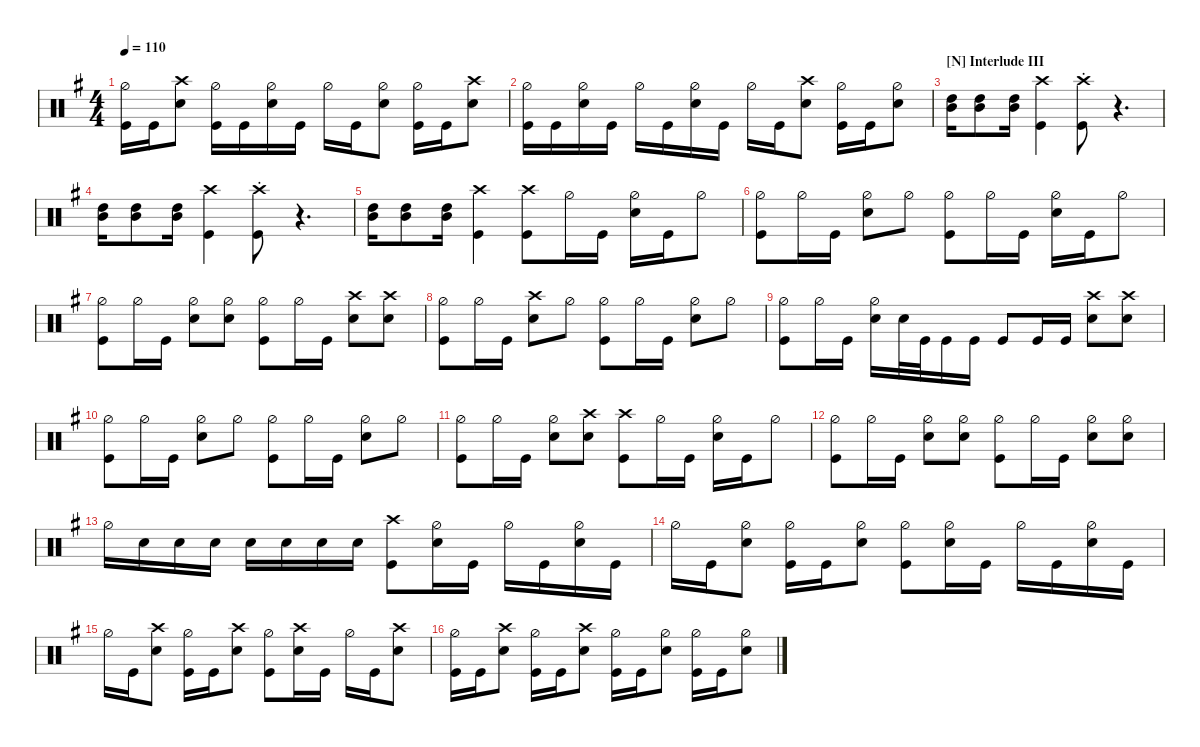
\defaultSystemsLayout 4
\hideDynamics
\bracketExtendMode nobrackets
\otherSystemsTrackNameOrientation horizontal
\track ("Drums" " ") {instrument percussion}
\staff
\articulation defaults
\ts (4 4)
\tempo 110
\clef neutral
\ks eminor
("Kick (hit)"{acc forcenatural} "Hi-Hat (half)"{acc forcenatural}).16{dy f} "Kick (hit)"{acc forcenatural}.16 ("Snare (hit) 2"{acc forcenatural} "Crash high (hit)"{acc forcenatural}).8 ("Hi-Hat (half)"{acc forcenatural} "Kick (hit)"{acc forcenatural}).16 "Kick (hit)"{acc forcenatural}.16 ("Hi-Hat (half)"{acc forcenatural} "Snare (hit) 2"{acc forcenatural}).16 "Kick (hit)"{acc forcenatural}.16 "Hi-Hat (half)"{acc forcenatural}.16 "Kick (hit)"{acc forcenatural}.16 ("Hi-Hat (half)"{acc forcenatural} "Snare (hit) 2"{acc forcenatural}).8 ("Kick (hit)"{acc forcenatural} "Hi-Hat (half)"{acc forcenatural}).16 "Kick (hit)"{acc forcenatural}.16 ("Snare (hit) 2"{acc forcenatural} "Crash high (hit)"{acc forcenatural}).8 |
("Hi-Hat (half)"{acc forcenatural} "Kick (hit)"{acc forcenatural}).16 "Kick (hit)"{acc forcenatural}.16 ("Hi-Hat (half)"{acc forcenatural} "Snare (hit) 2"{acc forcenatural}).16 "Kick (hit)"{acc forcenatural}.16 "Hi-Hat (half)"{acc forcenatural}.16 "Kick (hit)"{acc forcenatural}.16 ("Hi-Hat (half)"{acc forcenatural} "Snare (hit) 2"{acc forcenatural}).16 "Kick (hit)"{acc forcenatural}.16 "Hi-Hat (half)"{acc forcenatural}.16 "Kick (hit)"{acc forcenatural}.16 ("Snare (hit) 2"{acc forcenatural} "Crash high (hit)"{acc forcenatural}).8 ("Kick (hit)"{acc forcenatural} "Hi-Hat (half)"{acc forcenatural}).16 "Kick (hit)"{acc forcenatural}.16 ("Hi-Hat (half)"{acc forcenatural} "Snare (hit) 2"{acc forcenatural}).8 |
\section ("N" "Interlude III")
("High Tom (hit)"{acc forcenatural} "Mid Tom (hit)"{acc forcenatural}).16{dy ff} ("High Tom (hit)"{acc forcenatural} "Mid Tom (hit)"{acc forcenatural}).8 ("High Tom (hit)"{acc forcenatural} "Mid Tom (hit)"{acc forcenatural}).16 ("Kick (hit)"{acc forcenatural} "Crash high (hit)"{acc forcenatural}).4{dy f} ("Kick (hit)"{acc forcenatural} "Crash high (hit)"{st acc forcenatural}).8 r.4{d} |
("High Tom (hit)"{acc forcenatural} "Mid Tom (hit)"{acc forcenatural}).16{dy ff} ("High Tom (hit)"{acc forcenatural} "Mid Tom (hit)"{acc forcenatural}).8 ("High Tom (hit)"{acc forcenatural} "Mid Tom (hit)"{acc forcenatural}).16 ("Kick (hit)"{acc forcenatural} "Crash high (hit)"{acc forcenatural}).4{dy f} ("Kick (hit)"{acc forcenatural} "Crash high (hit)"{st acc forcenatural}).8 r.4{d} |
("High Tom (hit)"{acc forcenatural} "Mid Tom (hit)"{acc forcenatural}).16{dy ff} ("High Tom (hit)"{acc forcenatural} "Mid Tom (hit)"{acc forcenatural}).8 ("High Tom (hit)"{acc forcenatural} "Mid Tom (hit)"{acc forcenatural}).16 ("Kick (hit)"{acc forcenatural} "Crash high (hit)"{acc forcenatural}).4{dy f} ("Kick (hit)"{acc forcenatural} "Crash high (hit)"{acc forcenatural}).8 "Hi-Hat (half)"{acc forcenatural}.16 "Kick (hit)"{acc forcenatural}.16 ("Hi-Hat (half)"{acc forcenatural} "Snare (hit) 2"{acc forcenatural}).16 "Kick (hit)"{acc forcenatural}.16 "Hi-Hat (half)"{acc forcenatural}.8 |
("Hi-Hat (half)"{acc forcenatural} "Kick (hit)"{acc forcenatural}).8 "Hi-Hat (half)"{acc forcenatural}.16 "Kick (hit)"{acc forcenatural}.16 ("Hi-Hat (half)"{acc forcenatural} "Snare (hit) 2"{acc forcenatural}).8 "Hi-Hat (half)"{acc forcenatural}.8 ("Hi-Hat (half)"{acc forcenatural} "Kick (hit)"{acc forcenatural}).8 "Hi-Hat (half)"{acc forcenatural}.16 "Kick (hit)"{acc forcenatural}.16 ("Hi-Hat (half)"{acc forcenatural} "Snare (hit) 2"{acc forcenatural}).16 "Kick (hit)"{acc forcenatural}.16 "Hi-Hat (half)"{acc forcenatural}.8 |
("Hi-Hat (half)"{acc forcenatural} "Kick (hit)"{acc forcenatural}).8 "Hi-Hat (half)"{acc forcenatural}.16 "Kick (hit)"{acc forcenatural}.16 ("Hi-Hat (half)"{acc forcenatural} "Snare (hit) 2"{acc forcenatural}).8 ("Hi-Hat (half)"{acc forcenatural} "Snare (hit) 2"{acc forcenatural}).8 ("Hi-Hat (half)"{acc forcenatural} "Kick (hit)"{acc forcenatural}).8 "Hi-Hat (half)"{acc forcenatural}.16 "Kick (hit)"{acc forcenatural}.16 ("Snare (hit) 2"{acc forcenatural} "Crash high (hit)"{acc forcenatural}).8 ("Snare (hit) 2"{acc forcenatural} "Crash high (hit)"{acc forcenatural}).8 |
("Hi-Hat (half)"{acc forcenatural} "Kick (hit)"{acc forcenatural}).8 "Hi-Hat (half)"{acc forcenatural}.16 "Kick (hit)"{acc forcenatural}.16 ("Snare (hit) 2"{acc forcenatural} "Crash high (hit)"{acc forcenatural}).8 "Hi-Hat (half)"{acc forcenatural}.8 ("Hi-Hat (half)"{acc forcenatural} "Kick (hit)"{acc forcenatural}).8 "Hi-Hat (half)"{acc forcenatural}.16 "Kick (hit)"{acc forcenatural}.16 ("Snare (hit) 2"{acc forcenatural} "Hi-Hat (half)"{acc forcenatural}).8 "Hi-Hat (half)"{acc forcenatural}.8 |
("Hi-Hat (half)"{acc forcenatural} "Kick (hit)"{acc forcenatural}).8 "Hi-Hat (half)"{acc forcenatural}.16 "Kick (hit)"{acc forcenatural}.16 ("Snare (hit) 2"{acc forcenatural} "Hi-Hat (half)"{acc forcenatural}).16 "Snare (hit) 2"{acc forcenatural}.32 "Kick (hit)"{acc forcenatural}.32 "Kick (hit)"{acc forcenatural}.16 "Kick (hit)"{acc forcenatural}.16 "Kick (hit)"{acc forcenatural}.8 "Kick (hit)"{acc forcenatural}.16 "Kick (hit)"{acc forcenatural}.16 ("Snare (hit) 2"{acc forcenatural} "Crash high (hit)"{acc forcenatural}).8 ("Snare (hit) 2"{acc forcenatural} "Crash high (hit)"{acc forcenatural}).8 |
("Hi-Hat (half)"{acc forcenatural} "Kick (hit)"{acc forcenatural}).8 "Hi-Hat (half)"{acc forcenatural}.16 "Kick (hit)"{acc forcenatural}.16 ("Snare (hit) 2"{acc forcenatural} "Hi-Hat (half)"{acc forcenatural}).8 "Hi-Hat (half)"{acc forcenatural}.8 ("Hi-Hat (half)"{acc forcenatural} "Kick (hit)"{acc forcenatural}).8 "Hi-Hat (half)"{acc forcenatural}.16 "Kick (hit)"{acc forcenatural}.16 ("Snare (hit) 2"{acc forcenatural} "Hi-Hat (half)"{acc forcenatural}).8 "Hi-Hat (half)"{acc forcenatural}.8 |
("Hi-Hat (half)"{acc forcenatural} "Kick (hit)"{acc forcenatural}).8 "Hi-Hat (half)"{acc forcenatural}.16 "Kick (hit)"{acc forcenatural}.16 ("Snare (hit) 2"{acc forcenatural} "Hi-Hat (half)"{acc forcenatural}).8 ("Snare (hit) 2"{acc forcenatural} "Crash high (hit)"{acc forcenatural}).8 ("Kick (hit)"{acc forcenatural} "Crash high (hit)"{acc forcenatural}).8 "Hi-Hat (half)"{acc forcenatural}.16 "Kick (hit)"{acc forcenatural}.16 ("Snare (hit) 2"{acc forcenatural} "Hi-Hat (half)"{acc forcenatural}).16 "Kick (hit)"{acc forcenatural}.16 "Hi-Hat (half)"{acc forcenatural}.8 |
("Hi-Hat (half)"{acc forcenatural} "Kick (hit)"{acc forcenatural}).8 "Hi-Hat (half)"{acc forcenatural}.16 "Kick (hit)"{acc forcenatural}.16 ("Snare (hit) 2"{acc forcenatural} "Hi-Hat (half)"{acc forcenatural}).8 ("Snare (hit) 2"{acc forcenatural} "Hi-Hat (half)"{acc forcenatural}).8 ("Hi-Hat (half)"{acc forcenatural} "Kick (hit)"{acc forcenatural}).8 "Hi-Hat (half)"{acc forcenatural}.16 "Kick (hit)"{acc forcenatural}.16 ("Snare (hit) 2"{acc forcenatural} "Hi-Hat (half)"{acc forcenatural}).8 ("Snare (hit) 2"{acc forcenatural} "Hi-Hat (half)"{acc forcenatural}).8 |
"Hi-Hat (half)"{acc forcenatural}.16 "Snare (hit) 2"{acc forcenatural}.16 "Snare (hit) 2"{acc forcenatural}.16 "Snare (hit) 2"{acc forcenatural}.16 "Snare (hit) 2"{acc forcenatural}.16 "Snare (hit) 2"{acc forcenatural}.16 "Snare (hit) 2"{acc forcenatural}.16 "Snare (hit) 2"{acc forcenatural}.16 ("Kick (hit)"{acc forcenatural} "Crash high (hit)"{acc forcenatural}).8 ("Hi-Hat (half)"{acc forcenatural} "Snare (hit) 2"{acc forcenatural}).16 "Kick (hit)"{acc forcenatural}.16 "Hi-Hat (half)"{acc forcenatural}.16 "Kick (hit)"{acc forcenatural}.16 ("Hi-Hat (half)"{acc forcenatural} "Snare (hit) 2"{acc forcenatural}).16 "Kick (hit)"{acc forcenatural}.16 |
"Hi-Hat (half)"{acc forcenatural}.16 "Kick (hit)"{acc forcenatural}.16 ("Hi-Hat (half)"{acc forcenatural} "Snare (hit) 2"{acc forcenatural}).8 ("Hi-Hat (half)"{acc forcenatural} "Kick (hit)"{acc forcenatural}).16 "Kick (hit)"{acc forcenatural}.16 ("Hi-Hat (half)"{acc forcenatural} "Snare (hit) 2"{acc forcenatural}).8 ("Hi-Hat (half)"{acc forcenatural} "Kick (hit)"{acc forcenatural}).8 ("Hi-Hat (half)"{acc forcenatural} "Snare (hit) 2"{acc forcenatural}).16 "Kick (hit)"{acc forcenatural}.16 "Hi-Hat (half)"{acc forcenatural}.16 "Kick (hit)"{acc forcenatural}.16 ("Hi-Hat (half)"{acc forcenatural} "Snare (hit) 2"{acc forcenatural}).16 "Kick (hit)"{acc forcenatural}.16 |
"Hi-Hat (half)"{acc forcenatural}.16 "Kick (hit)"{acc forcenatural}.16 ("Snare (hit) 2"{acc forcenatural} "Crash high (hit)"{acc forcenatural}).8 ("Hi-Hat (half)"{acc forcenatural} "Kick (hit)"{acc forcenatural}).16 "Kick (hit)"{acc forcenatural}.16 ("Snare (hit) 2"{acc forcenatural} "Crash high (hit)"{acc forcenatural}).8 ("Hi-Hat (half)"{acc forcenatural} "Kick (hit)"{acc forcenatural}).8 ("Snare (hit) 2"{acc forcenatural} "Crash high (hit)"{acc forcenatural}).16 "Kick (hit)"{acc forcenatural}.16 "Hi-Hat (half)"{acc forcenatural}.16 "Kick (hit)"{acc forcenatural}.16 ("Snare (hit) 2"{acc forcenatural} "Crash high (hit)"{acc forcenatural}).8 |
("Hi-Hat (half)"{acc forcenatural} "Kick (hit)"{acc forcenatural}).16 "Kick (hit)"{acc forcenatural}.16 ("Snare (hit) 2"{acc forcenatural} "Crash high (hit)"{acc forcenatural}).8 ("Hi-Hat (half)"{acc forcenatural} "Kick (hit)"{acc forcenatural}).16 "Kick (hit)"{acc forcenatural}.16 ("Snare (hit) 2"{acc forcenatural} "Crash high (hit)"{acc forcenatural}).8 ("Hi-Hat (half)"{acc forcenatural} "Kick (hit)"{acc forcenatural}).16 "Kick (hit)"{acc forcenatural}.16 ("Snare (hit) 2"{acc forcenatural} "Hi-Hat (half)"{acc forcenatural}).8 ("Hi-Hat (half)"{acc forcenatural} "Kick (hit)"{acc forcenatural}).16 "Kick (hit)"{acc forcenatural}.16 ("Snare (hit) 2"{acc forcenatural} "Hi-Hat (half)"{acc forcenatural}).8
